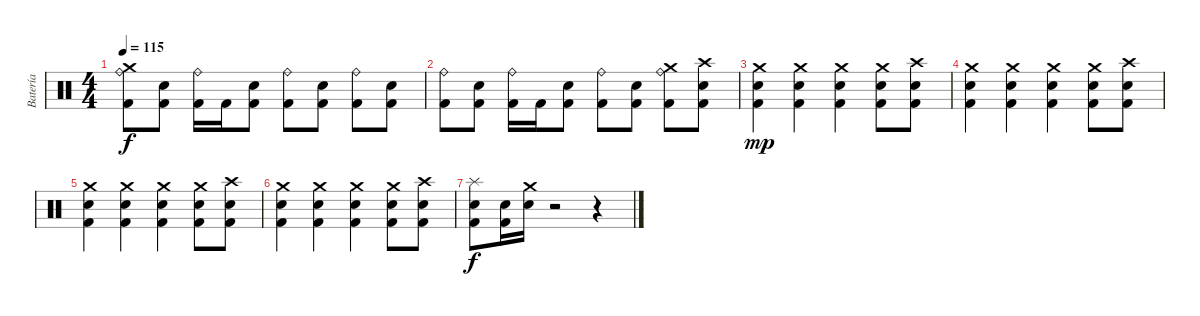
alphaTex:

\track ("Batería" "Batería") {instrument percussion}
\staff {score}
\articulation defaults
\ts (4 4)
\tempo 115
\clef neutral
\ks c
("Ride (bell)" "Crash medium (hit)" "Kick (hit) 2").8{dy f} ("Snare (hit) 2" "Kick (hit) 2").8 ("Ride (bell)" "Kick (hit) 2").16 "Kick (hit) 2".16 ("Snare (hit) 2" "Kick (hit) 2").8 ("Ride (bell)" "Kick (hit) 2").8 ("Snare (hit) 2" "Kick (hit) 2").8 ("Ride (bell)" "Kick (hit) 2").8 ("Snare (hit) 2" "Kick (hit) 2").8 |
("Ride (bell)" "Kick (hit) 2").8 ("Snare (hit) 2" "Kick (hit) 2").8 ("Ride (bell)" "Kick (hit) 2").16 "Kick (hit) 2".16 ("Snare (hit) 2" "Kick (hit) 2").8 ("Ride (bell)" "Kick (hit) 2").8 ("Snare (hit) 2" "Kick (hit) 2").8 ("Crash medium (hit)" "Ride (bell)" "Kick (hit) 2").8 ("Crash high (hit)" "Snare (hit) 2" "Kick (hit) 2").8 |
("Crash medium (hit)" "Snare (hit) 2" "Kick (hit) 2").4{dy mp} ("Crash medium (hit)" "Snare (hit) 2" "Kick (hit) 2").4 ("Crash medium (hit)" "Snare (hit) 2" "Kick (hit) 2").4 ("Crash medium (hit)" "Snare (hit) 2" "Kick (hit) 2").8 ("Crash high (hit)" "Snare (hit) 2" "Kick (hit) 2").8 |
("Crash medium (hit)" "Snare (hit) 2" "Kick (hit) 2").4 ("Crash medium (hit)" "Snare (hit) 2" "Kick (hit) 2").4 ("Crash medium (hit)" "Snare (hit) 2" "Kick (hit) 2").4 ("Crash medium (hit)" "Snare (hit) 2" "Kick (hit) 2").8 ("Crash high (hit)" "Snare (hit) 2" "Kick (hit) 2").8 |
("Crash medium (hit)" "Snare (hit) 2" "Kick (hit) 2").4 ("Crash medium (hit)" "Snare (hit) 2" "Kick (hit) 2").4 ("Crash medium (hit)" "Snare (hit) 2" "Kick (hit) 2").4 ("Crash medium (hit)" "Snare (hit) 2" "Kick (hit) 2").8 ("Crash high (hit)" "Snare (hit) 2" "Kick (hit) 2").8 |
("Crash medium (hit)" "Snare (hit) 2" "Kick (hit) 2").4 ("Crash medium (hit)" "Snare (hit) 2" "Kick (hit) 2").4 ("Crash medium (hit)" "Snare (hit) 2" "Kick (hit) 2").4 ("Crash medium (hit)" "Snare (hit) 2" "Kick (hit) 2").8 ("Crash high (hit)" "Snare (hit) 2" "Kick (hit) 2").8 |
("Splash (hit)" "Snare (hit) 2" "Kick (hit) 2").8{dy f} ("Snare (hit) 2" "Kick (hit) 2").16 ("Crash medium (hit)" "Snare (hit) 2").16 r.2 r.4
